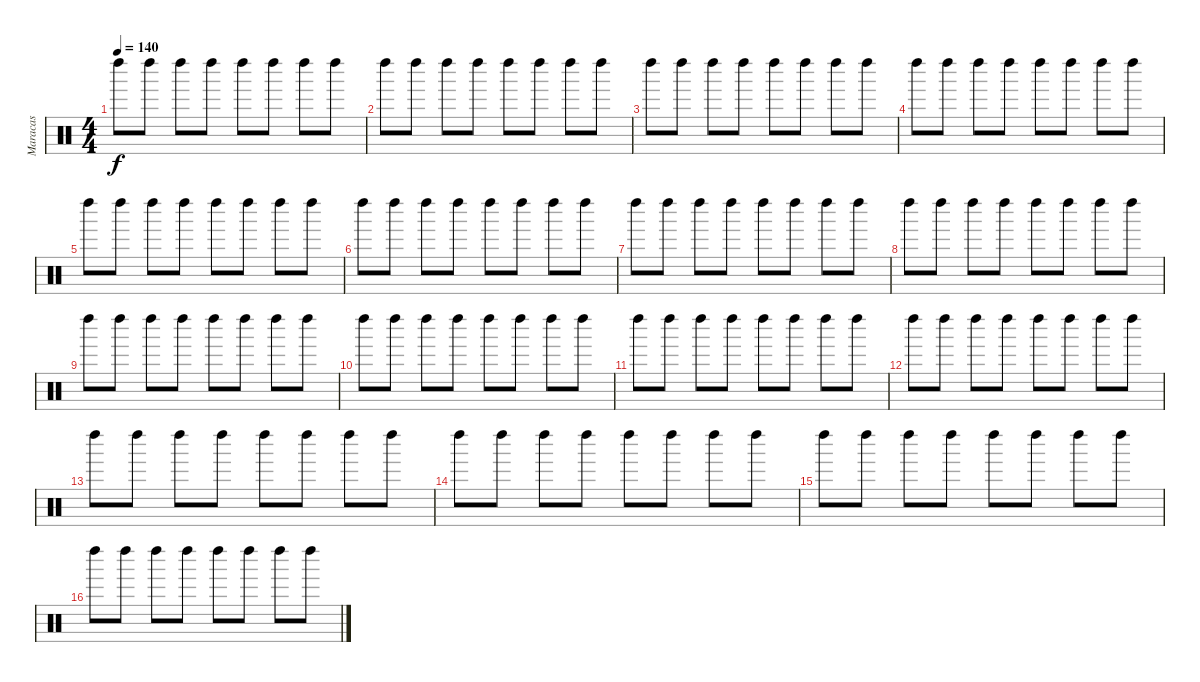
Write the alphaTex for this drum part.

\track ("Maracas" "Maracas") {instrument percussion}
\staff {score}
\articulation defaults
\ts (4 4)
\tempo 140
\clef neutral
\ks c "Left Maraca (hit)".8{dy f} "Left Maraca (hit)".8 "Left Maraca (hit)".8 "Left Maraca (hit)".8 "Left Maraca (hit)".8 "Left Maraca (hit)".8 "Left Maraca (hit)".8 "Left Maraca (hit)".8
|
"Left Maraca (hit)".8 "Left Maraca (hit)".8 "Left Maraca (hit)".8 "Left Maraca (hit)".8 "Left Maraca (hit)".8 "Left Maraca (hit)".8 "Left Maraca (hit)".8 "Left Maraca (hit)".8 |
"Left Maraca (hit)".8 "Left Maraca (hit)".8 "Left Maraca (hit)".8 "Left Maraca (hit)".8 "Left Maraca (hit)".8 "Left Maraca (hit)".8 "Left Maraca (hit)".8 "Left Maraca (hit)".8 |
"Left Maraca (hit)".8 "Left Maraca (hit)".8 "Left Maraca (hit)".8 "Left Maraca (hit)".8 "Left Maraca (hit)".8 "Left Maraca (hit)".8 "Left Maraca (hit)".8 "Left Maraca (hit)".8 |
"Left Maraca (hit)".8 "Left Maraca (hit)".8 "Left Maraca (hit)".8 "Left Maraca (hit)".8 "Left Maraca (hit)".8 "Left Maraca (hit)".8 "Left Maraca (hit)".8 "Left Maraca (hit)".8 |
"Left Maraca (hit)".8 "Left Maraca (hit)".8 "Left Maraca (hit)".8 "Left Maraca (hit)".8 "Left Maraca (hit)".8 "Left Maraca (hit)".8 "Left Maraca (hit)".8 "Left Maraca (hit)".8 |
"Left Maraca (hit)".8 "Left Maraca (hit)".8 "Left Maraca (hit)".8 "Left Maraca (hit)".8 "Left Maraca (hit)".8 "Left Maraca (hit)".8 "Left Maraca (hit)".8 "Left Maraca (hit)".8 |
"Left Maraca (hit)".8 "Left Maraca (hit)".8 "Left Maraca (hit)".8 "Left Maraca (hit)".8 "Left Maraca (hit)".8 "Left Maraca (hit)".8 "Left Maraca (hit)".8 "Left Maraca (hit)".8 |
"Left Maraca (hit)".8 "Left Maraca (hit)".8 "Left Maraca (hit)".8 "Left Maraca (hit)".8 "Left Maraca (hit)".8 "Left Maraca (hit)".8 "Left Maraca (hit)".8 "Left Maraca (hit)".8 |
"Left Maraca (hit)".8 "Left Maraca (hit)".8 "Left Maraca (hit)".8 "Left Maraca (hit)".8 "Left Maraca (hit)".8 "Left Maraca (hit)".8 "Left Maraca (hit)".8 "Left Maraca (hit)".8 |
"Left Maraca (hit)".8 "Left Maraca (hit)".8 "Left Maraca (hit)".8 "Left Maraca (hit)".8 "Left Maraca (hit)".8 "Left Maraca (hit)".8 "Left Maraca (hit)".8 "Left Maraca (hit)".8 |
"Left Maraca (hit)".8 "Left Maraca (hit)".8 "Left Maraca (hit)".8 "Left Maraca (hit)".8 "Left Maraca (hit)".8 "Left Maraca (hit)".8 "Left Maraca (hit)".8 "Left Maraca (hit)".8 |
"Left Maraca (hit)".8 "Left Maraca (hit)".8 "Left Maraca (hit)".8 "Left Maraca (hit)".8 "Left Maraca (hit)".8 "Left Maraca (hit)".8 "Left Maraca (hit)".8 "Left Maraca (hit)".8 |
"Left Maraca (hit)".8 "Left Maraca (hit)".8 "Left Maraca (hit)".8 "Left Maraca (hit)".8 "Left Maraca (hit)".8 "Left Maraca (hit)".8 "Left Maraca (hit)".8 "Left Maraca (hit)".8 |
"Left Maraca (hit)".8 "Left Maraca (hit)".8 "Left Maraca (hit)".8 "Left Maraca (hit)".8 "Left Maraca (hit)".8 "Left Maraca (hit)".8 "Left Maraca (hit)".8 "Left Maraca (hit)".8 |
"Left Maraca (hit)".8 "Left Maraca (hit)".8 "Left Maraca (hit)".8 "Left Maraca (hit)".8 "Left Maraca (hit)".8 "Left Maraca (hit)".8 "Left Maraca (hit)".8 "Left Maraca (hit)".8
